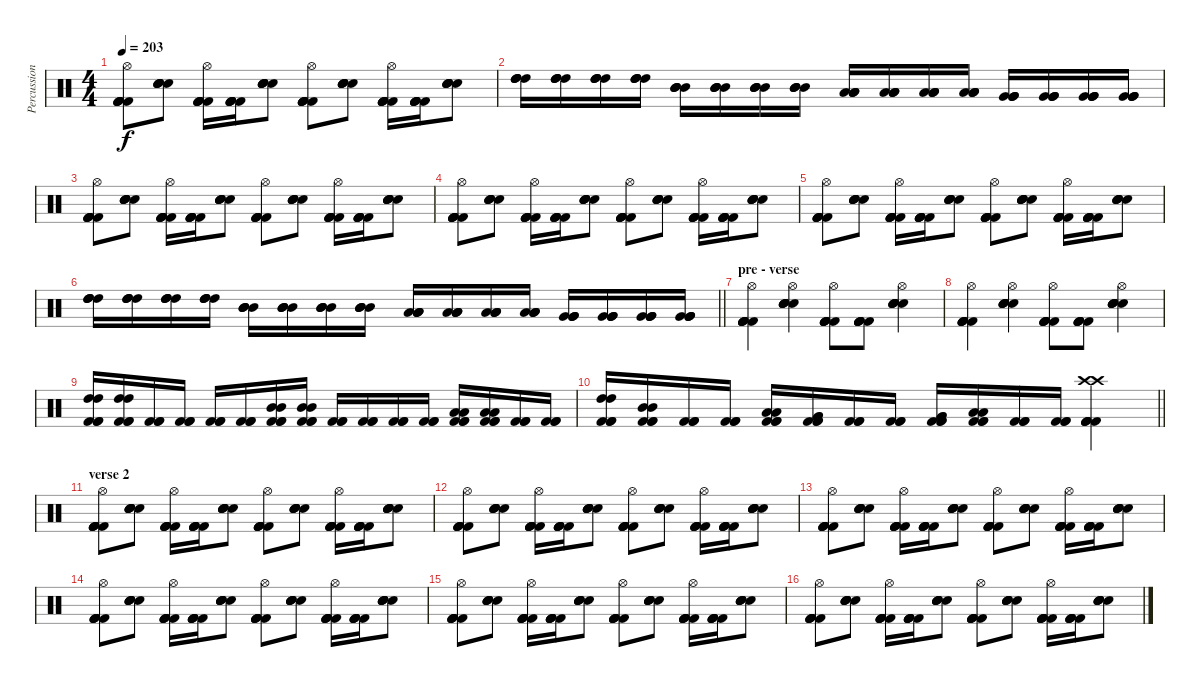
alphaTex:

\track ("Percussion" "Percussion") {instrument percussion}
\staff {score}
\articulation defaults
\ts (4 4)
\tempo 203
\clef neutral
\ks c
("Kick (hit) 2" "Kick (hit) 2" "Kick (hit) 2" "Kick (hit) 2" "Kick (hit) 2" "Hi-Hat (open)").8{dy f} ("Electric Snare (hit)" "Electric Snare (hit)" "Electric Snare (hit)" "Electric Snare (hit)" "Electric Snare (hit)").8 ("Kick (hit) 2" "Kick (hit) 2" "Kick (hit) 2" "Kick (hit) 2" "Kick (hit) 2" "Hi-Hat (open)").16 ("Kick (hit) 2" "Kick (hit) 2" "Kick (hit) 2" "Kick (hit) 2" "Kick (hit) 2").16 ("Electric Snare (hit)" "Electric Snare (hit)" "Electric Snare (hit)" "Electric Snare (hit)" "Electric Snare (hit)").8 ("Kick (hit) 2" "Kick (hit) 2" "Kick (hit) 2" "Kick (hit) 2" "Kick (hit) 2" "Hi-Hat (open)").8 ("Electric Snare (hit)" "Electric Snare (hit)" "Electric Snare (hit)" "Electric Snare (hit)" "Electric Snare (hit)").8 ("Kick (hit) 2" "Kick (hit) 2" "Kick (hit) 2" "Kick (hit) 2" "Kick (hit) 2" "Hi-Hat (open)").16 ("Kick (hit) 2" "Kick (hit) 2" "Kick (hit) 2" "Kick (hit) 2" "Kick (hit) 2").16 ("Electric Snare (hit)" "Electric Snare (hit)" "Electric Snare (hit)" "Electric Snare (hit)" "Electric Snare (hit)").8 |
("High Tom (hit)" "High Tom (hit)" "High Tom (hit)" "High Tom (hit)").16 ("High Tom (hit)" "High Tom (hit)" "High Tom (hit)" "High Tom (hit)").16 ("High Tom (hit)" "High Tom (hit)" "High Tom (hit)" "High Tom (hit)").16 ("High Tom (hit)" "High Tom (hit)" "High Tom (hit)" "High Tom (hit)").16 ("Mid Tom (hit)" "Mid Tom (hit)" "Mid Tom (hit)" "Mid Tom (hit)").16 ("Mid Tom (hit)" "Mid Tom (hit)" "Mid Tom (hit)" "Mid Tom (hit)").16 ("Mid Tom (hit)" "Mid Tom (hit)" "Mid Tom (hit)" "Mid Tom (hit)").16 ("Mid Tom (hit)" "Mid Tom (hit)" "Mid Tom (hit)" "Mid Tom (hit)").16 ("Low Tom (hit)" "Low Tom (hit)" "Low Tom (hit)" "Low Tom (hit)").16 ("Low Tom (hit)" "Low Tom (hit)" "Low Tom (hit)" "Low Tom (hit)").16 ("Low Tom (hit)" "Low Tom (hit)" "Low Tom (hit)" "Low Tom (hit)").16 ("Low Tom (hit)" "Low Tom (hit)" "Low Tom (hit)" "Low Tom (hit)").16 ("Very Low Tom (hit)" "Very Low Tom (hit)" "Very Low Tom (hit)" "Very Low Tom (hit)").16 ("Very Low Tom (hit)" "Very Low Tom (hit)" "Very Low Tom (hit)" "Very Low Tom (hit)").16 ("Very Low Tom (hit)" "Very Low Tom (hit)" "Very Low Tom (hit)" "Very Low Tom (hit)").16 ("Very Low Tom (hit)" "Very Low Tom (hit)" "Very Low Tom (hit)" "Very Low Tom (hit)").16 |
("Kick (hit) 2" "Kick (hit) 2" "Kick (hit) 2" "Kick (hit) 2" "Kick (hit) 2" "Hi-Hat (open)").8 ("Electric Snare (hit)" "Electric Snare (hit)" "Electric Snare (hit)" "Electric Snare (hit)" "Electric Snare (hit)").8 ("Kick (hit) 2" "Kick (hit) 2" "Kick (hit) 2" "Kick (hit) 2" "Kick (hit) 2" "Hi-Hat (open)").16 ("Kick (hit) 2" "Kick (hit) 2" "Kick (hit) 2" "Kick (hit) 2" "Kick (hit) 2").16 ("Electric Snare (hit)" "Electric Snare (hit)" "Electric Snare (hit)" "Electric Snare (hit)" "Electric Snare (hit)").8 ("Kick (hit) 2" "Kick (hit) 2" "Kick (hit) 2" "Kick (hit) 2" "Kick (hit) 2" "Hi-Hat (open)").8 ("Electric Snare (hit)" "Electric Snare (hit)" "Electric Snare (hit)" "Electric Snare (hit)" "Electric Snare (hit)").8 ("Kick (hit) 2" "Kick (hit) 2" "Kick (hit) 2" "Kick (hit) 2" "Kick (hit) 2" "Hi-Hat (open)").16 ("Kick (hit) 2" "Kick (hit) 2" "Kick (hit) 2" "Kick (hit) 2" "Kick (hit) 2").16 ("Electric Snare (hit)" "Electric Snare (hit)" "Electric Snare (hit)" "Electric Snare (hit)" "Electric Snare (hit)").8 |
("Kick (hit) 2" "Kick (hit) 2" "Kick (hit) 2" "Kick (hit) 2" "Kick (hit) 2" "Hi-Hat (open)").8 ("Electric Snare (hit)" "Electric Snare (hit)" "Electric Snare (hit)" "Electric Snare (hit)" "Electric Snare (hit)").8 ("Kick (hit) 2" "Kick (hit) 2" "Kick (hit) 2" "Kick (hit) 2" "Kick (hit) 2" "Hi-Hat (open)").16 ("Kick (hit) 2" "Kick (hit) 2" "Kick (hit) 2" "Kick (hit) 2" "Kick (hit) 2").16 ("Electric Snare (hit)" "Electric Snare (hit)" "Electric Snare (hit)" "Electric Snare (hit)" "Electric Snare (hit)").8 ("Kick (hit) 2" "Kick (hit) 2" "Kick (hit) 2" "Kick (hit) 2" "Kick (hit) 2" "Hi-Hat (open)").8 ("Electric Snare (hit)" "Electric Snare (hit)" "Electric Snare (hit)" "Electric Snare (hit)" "Electric Snare (hit)").8 ("Kick (hit) 2" "Kick (hit) 2" "Kick (hit) 2" "Kick (hit) 2" "Kick (hit) 2" "Hi-Hat (open)").16 ("Kick (hit) 2" "Kick (hit) 2" "Kick (hit) 2" "Kick (hit) 2" "Kick (hit) 2").16 ("Electric Snare (hit)" "Electric Snare (hit)" "Electric Snare (hit)" "Electric Snare (hit)" "Electric Snare (hit)").8 |
("Kick (hit) 2" "Kick (hit) 2" "Kick (hit) 2" "Kick (hit) 2" "Kick (hit) 2" "Hi-Hat (open)").8 ("Electric Snare (hit)" "Electric Snare (hit)" "Electric Snare (hit)" "Electric Snare (hit)" "Electric Snare (hit)").8 ("Kick (hit) 2" "Kick (hit) 2" "Kick (hit) 2" "Kick (hit) 2" "Kick (hit) 2" "Hi-Hat (open)").16 ("Kick (hit) 2" "Kick (hit) 2" "Kick (hit) 2" "Kick (hit) 2" "Kick (hit) 2").16 ("Electric Snare (hit)" "Electric Snare (hit)" "Electric Snare (hit)" "Electric Snare (hit)" "Electric Snare (hit)").8 ("Kick (hit) 2" "Kick (hit) 2" "Kick (hit) 2" "Kick (hit) 2" "Kick (hit) 2" "Hi-Hat (open)").8 ("Electric Snare (hit)" "Electric Snare (hit)" "Electric Snare (hit)" "Electric Snare (hit)" "Electric Snare (hit)").8 ("Kick (hit) 2" "Kick (hit) 2" "Kick (hit) 2" "Kick (hit) 2" "Kick (hit) 2" "Hi-Hat (open)").16 ("Kick (hit) 2" "Kick (hit) 2" "Kick (hit) 2" "Kick (hit) 2" "Kick (hit) 2").16 ("Electric Snare (hit)" "Electric Snare (hit)" "Electric Snare (hit)" "Electric Snare (hit)" "Electric Snare (hit)").8 |
\barLineRight lightlight
("High Tom (hit)" "High Tom (hit)" "High Tom (hit)" "High Tom (hit)").16 ("High Tom (hit)" "High Tom (hit)" "High Tom (hit)" "High Tom (hit)").16 ("High Tom (hit)" "High Tom (hit)" "High Tom (hit)" "High Tom (hit)").16 ("High Tom (hit)" "High Tom (hit)" "High Tom (hit)" "High Tom (hit)").16 ("Mid Tom (hit)" "Mid Tom (hit)" "Mid Tom (hit)" "Mid Tom (hit)").16 ("Mid Tom (hit)" "Mid Tom (hit)" "Mid Tom (hit)" "Mid Tom (hit)").16 ("Mid Tom (hit)" "Mid Tom (hit)" "Mid Tom (hit)" "Mid Tom (hit)").16 ("Mid Tom (hit)" "Mid Tom (hit)" "Mid Tom (hit)" "Mid Tom (hit)").16 ("Low Tom (hit)" "Low Tom (hit)" "Low Tom (hit)" "Low Tom (hit)").16 ("Low Tom (hit)" "Low Tom (hit)" "Low Tom (hit)" "Low Tom (hit)").16 ("Low Tom (hit)" "Low Tom (hit)" "Low Tom (hit)" "Low Tom (hit)").16 ("Low Tom (hit)" "Low Tom (hit)" "Low Tom (hit)" "Low Tom (hit)").16 ("Very Low Tom (hit)" "Very Low Tom (hit)" "Very Low Tom (hit)" "Very Low Tom (hit)").16 ("Very Low Tom (hit)" "Very Low Tom (hit)" "Very Low Tom (hit)" "Very Low Tom (hit)").16 ("Very Low Tom (hit)" "Very Low Tom (hit)" "Very Low Tom (hit)" "Very Low Tom (hit)").16 ("Very Low Tom (hit)" "Very Low Tom (hit)" "Very Low Tom (hit)" "Very Low Tom (hit)").16 |
\section ("" "pre - verse")
("Kick (hit) 2" "Kick (hit) 2" "Kick (hit) 2" "Kick (hit) 2" "Kick (hit) 2" "Hi-Hat (open)").4 ("Electric Snare (hit)" "Electric Snare (hit)" "Electric Snare (hit)" "Electric Snare (hit)" "Electric Snare (hit)" "Hi-Hat (open)").4 ("Kick (hit) 2" "Kick (hit) 2" "Kick (hit) 2" "Kick (hit) 2" "Kick (hit) 2" "Hi-Hat (open)").8 ("Kick (hit) 2" "Kick (hit) 2" "Kick (hit) 2" "Kick (hit) 2" "Kick (hit) 2").8 ("Electric Snare (hit)" "Electric Snare (hit)" "Electric Snare (hit)" "Electric Snare (hit)" "Electric Snare (hit)" "Hi-Hat (open)").4 |
("Kick (hit) 2" "Kick (hit) 2" "Kick (hit) 2" "Kick (hit) 2" "Kick (hit) 2" "Hi-Hat (open)").4 ("Electric Snare (hit)" "Electric Snare (hit)" "Electric Snare (hit)" "Electric Snare (hit)" "Electric Snare (hit)" "Hi-Hat (open)").4 ("Kick (hit) 2" "Kick (hit) 2" "Kick (hit) 2" "Kick (hit) 2" "Kick (hit) 2" "Hi-Hat (open)").8 ("Kick (hit) 2" "Kick (hit) 2" "Kick (hit) 2" "Kick (hit) 2" "Kick (hit) 2").8 ("Electric Snare (hit)" "Electric Snare (hit)" "Electric Snare (hit)" "Electric Snare (hit)" "Electric Snare (hit)" "Hi-Hat (open)").4 |
("Kick (hit) 2" "Kick (hit) 2" "Kick (hit) 2" "High Tom (hit)" "High Tom (hit)").16 ("Kick (hit) 2" "Kick (hit) 2" "Kick (hit) 2" "High Tom (hit)" "High Tom (hit)").16 ("Kick (hit) 2" "Kick (hit) 2" "Kick (hit) 2").16 ("Kick (hit) 2" "Kick (hit) 2" "Kick (hit) 2").16 ("Kick (hit) 2" "Kick (hit) 2" "Kick (hit) 2").16 ("Kick (hit) 2" "Kick (hit) 2" "Kick (hit) 2").16 ("Kick (hit) 2" "Kick (hit) 2" "Kick (hit) 2" "Mid Tom (hit)" "Mid Tom (hit)").16 ("Kick (hit) 2" "Kick (hit) 2" "Kick (hit) 2" "Mid Tom (hit)" "Mid Tom (hit)").16 ("Kick (hit) 2" "Kick (hit) 2" "Kick (hit) 2").16 ("Kick (hit) 2" "Kick (hit) 2" "Kick (hit) 2").16 ("Kick (hit) 2" "Kick (hit) 2" "Kick (hit) 2").16 ("Kick (hit) 2" "Kick (hit) 2" "Kick (hit) 2").16 ("Kick (hit) 2" "Kick (hit) 2" "Kick (hit) 2" "Low Tom (hit)" "Low Tom (hit)").16 ("Kick (hit) 2" "Kick (hit) 2" "Kick (hit) 2" "Low Tom (hit)" "Low Tom (hit)").16 ("Kick (hit) 2" "Kick (hit) 2" "Kick (hit) 2").16 ("Kick (hit) 2" "Kick (hit) 2" "Kick (hit) 2").16 |
\barLineRight lightlight
("Kick (hit) 2" "Kick (hit) 2" "Kick (hit) 2" "High Tom (hit)" "High Tom (hit)").16 ("Kick (hit) 2" "Kick (hit) 2" "Kick (hit) 2" "Mid Tom (hit)" "Mid Tom (hit)").16 ("Kick (hit) 2" "Kick (hit) 2" "Kick (hit) 2").16 ("Kick (hit) 2" "Kick (hit) 2" "Kick (hit) 2").16 ("Kick (hit) 2" "Kick (hit) 2" "Kick (hit) 2" "Low Tom (hit)" "Low Tom (hit)").16 ("Kick (hit) 2" "Kick (hit) 2" "Kick (hit) 2" "Very Low Tom (hit)" "Very Low Tom (hit)").16 ("Kick (hit) 2" "Kick (hit) 2" "Kick (hit) 2").16 ("Kick (hit) 2" "Kick (hit) 2" "Kick (hit) 2").16 ("Kick (hit) 2" "Kick (hit) 2" "Kick (hit) 2" "Very Low Tom (hit)" "Very Low Tom (hit)").16 ("Kick (hit) 2" "Kick (hit) 2" "Kick (hit) 2" "Low Floor Tom (hit)" "Low Floor Tom (hit)").16 ("Kick (hit) 2" "Kick (hit) 2" "Kick (hit) 2").16 ("Kick (hit) 2" "Kick (hit) 2" "Kick (hit) 2").16 ("Kick (hit) 2" "Kick (hit) 2" "Kick (hit) 2" "Kick (hit) 2" "Crash high (hit)" "Crash high (hit)").4 |
\section ("" "verse 2")
("Kick (hit) 2" "Kick (hit) 2" "Kick (hit) 2" "Kick (hit) 2" "Kick (hit) 2" "Hi-Hat (open)").8 ("Electric Snare (hit)" "Electric Snare (hit)" "Electric Snare (hit)" "Electric Snare (hit)" "Electric Snare (hit)").8 ("Kick (hit) 2" "Kick (hit) 2" "Kick (hit) 2" "Kick (hit) 2" "Kick (hit) 2" "Hi-Hat (open)").16 ("Kick (hit) 2" "Kick (hit) 2" "Kick (hit) 2" "Kick (hit) 2" "Kick (hit) 2").16 ("Electric Snare (hit)" "Electric Snare (hit)" "Electric Snare (hit)" "Electric Snare (hit)" "Electric Snare (hit)").8 ("Kick (hit) 2" "Kick (hit) 2" "Kick (hit) 2" "Kick (hit) 2" "Kick (hit) 2" "Hi-Hat (open)").8 ("Electric Snare (hit)" "Electric Snare (hit)" "Electric Snare (hit)" "Electric Snare (hit)" "Electric Snare (hit)").8 ("Kick (hit) 2" "Kick (hit) 2" "Kick (hit) 2" "Kick (hit) 2" "Kick (hit) 2" "Hi-Hat (open)").16 ("Kick (hit) 2" "Kick (hit) 2" "Kick (hit) 2" "Kick (hit) 2" "Kick (hit) 2").16 ("Electric Snare (hit)" "Electric Snare (hit)" "Electric Snare (hit)" "Electric Snare (hit)" "Electric Snare (hit)").8 |
("Kick (hit) 2" "Kick (hit) 2" "Kick (hit) 2" "Kick (hit) 2" "Kick (hit) 2" "Hi-Hat (open)").8 ("Electric Snare (hit)" "Electric Snare (hit)" "Electric Snare (hit)" "Electric Snare (hit)" "Electric Snare (hit)").8 ("Kick (hit) 2" "Kick (hit) 2" "Kick (hit) 2" "Kick (hit) 2" "Kick (hit) 2" "Hi-Hat (open)").16 ("Kick (hit) 2" "Kick (hit) 2" "Kick (hit) 2" "Kick (hit) 2" "Kick (hit) 2").16 ("Electric Snare (hit)" "Electric Snare (hit)" "Electric Snare (hit)" "Electric Snare (hit)" "Electric Snare (hit)").8 ("Kick (hit) 2" "Kick (hit) 2" "Kick (hit) 2" "Kick (hit) 2" "Kick (hit) 2" "Hi-Hat (open)").8 ("Electric Snare (hit)" "Electric Snare (hit)" "Electric Snare (hit)" "Electric Snare (hit)" "Electric Snare (hit)").8 ("Kick (hit) 2" "Kick (hit) 2" "Kick (hit) 2" "Kick (hit) 2" "Kick (hit) 2" "Hi-Hat (open)").16 ("Kick (hit) 2" "Kick (hit) 2" "Kick (hit) 2" "Kick (hit) 2" "Kick (hit) 2").16 ("Electric Snare (hit)" "Electric Snare (hit)" "Electric Snare (hit)" "Electric Snare (hit)" "Electric Snare (hit)").8 |
("Kick (hit) 2" "Kick (hit) 2" "Kick (hit) 2" "Kick (hit) 2" "Kick (hit) 2" "Hi-Hat (open)").8 ("Electric Snare (hit)" "Electric Snare (hit)" "Electric Snare (hit)" "Electric Snare (hit)" "Electric Snare (hit)").8 ("Kick (hit) 2" "Kick (hit) 2" "Kick (hit) 2" "Kick (hit) 2" "Kick (hit) 2" "Hi-Hat (open)").16 ("Kick (hit) 2" "Kick (hit) 2" "Kick (hit) 2" "Kick (hit) 2" "Kick (hit) 2").16 ("Electric Snare (hit)" "Electric Snare (hit)" "Electric Snare (hit)" "Electric Snare (hit)" "Electric Snare (hit)").8 ("Kick (hit) 2" "Kick (hit) 2" "Kick (hit) 2" "Kick (hit) 2" "Kick (hit) 2" "Hi-Hat (open)").8 ("Electric Snare (hit)" "Electric Snare (hit)" "Electric Snare (hit)" "Electric Snare (hit)" "Electric Snare (hit)").8 ("Kick (hit) 2" "Kick (hit) 2" "Kick (hit) 2" "Kick (hit) 2" "Kick (hit) 2" "Hi-Hat (open)").16 ("Kick (hit) 2" "Kick (hit) 2" "Kick (hit) 2" "Kick (hit) 2" "Kick (hit) 2").16 ("Electric Snare (hit)" "Electric Snare (hit)" "Electric Snare (hit)" "Electric Snare (hit)" "Electric Snare (hit)").8 |
("Kick (hit) 2" "Kick (hit) 2" "Kick (hit) 2" "Kick (hit) 2" "Kick (hit) 2" "Hi-Hat (open)").8 ("Electric Snare (hit)" "Electric Snare (hit)" "Electric Snare (hit)" "Electric Snare (hit)" "Electric Snare (hit)").8 ("Kick (hit) 2" "Kick (hit) 2" "Kick (hit) 2" "Kick (hit) 2" "Kick (hit) 2" "Hi-Hat (open)").16 ("Kick (hit) 2" "Kick (hit) 2" "Kick (hit) 2" "Kick (hit) 2" "Kick (hit) 2").16 ("Electric Snare (hit)" "Electric Snare (hit)" "Electric Snare (hit)" "Electric Snare (hit)" "Electric Snare (hit)").8 ("Kick (hit) 2" "Kick (hit) 2" "Kick (hit) 2" "Kick (hit) 2" "Kick (hit) 2" "Hi-Hat (open)").8 ("Electric Snare (hit)" "Electric Snare (hit)" "Electric Snare (hit)" "Electric Snare (hit)" "Electric Snare (hit)").8 ("Kick (hit) 2" "Kick (hit) 2" "Kick (hit) 2" "Kick (hit) 2" "Kick (hit) 2" "Hi-Hat (open)").16 ("Kick (hit) 2" "Kick (hit) 2" "Kick (hit) 2" "Kick (hit) 2" "Kick (hit) 2").16 ("Electric Snare (hit)" "Electric Snare (hit)" "Electric Snare (hit)" "Electric Snare (hit)" "Electric Snare (hit)").8 |
("Kick (hit) 2" "Kick (hit) 2" "Kick (hit) 2" "Kick (hit) 2" "Kick (hit) 2" "Hi-Hat (open)").8 ("Electric Snare (hit)" "Electric Snare (hit)" "Electric Snare (hit)" "Electric Snare (hit)" "Electric Snare (hit)").8 ("Kick (hit) 2" "Kick (hit) 2" "Kick (hit) 2" "Kick (hit) 2" "Kick (hit) 2" "Hi-Hat (open)").16 ("Kick (hit) 2" "Kick (hit) 2" "Kick (hit) 2" "Kick (hit) 2" "Kick (hit) 2").16 ("Electric Snare (hit)" "Electric Snare (hit)" "Electric Snare (hit)" "Electric Snare (hit)" "Electric Snare (hit)").8 ("Kick (hit) 2" "Kick (hit) 2" "Kick (hit) 2" "Kick (hit) 2" "Kick (hit) 2" "Hi-Hat (open)").8 ("Electric Snare (hit)" "Electric Snare (hit)" "Electric Snare (hit)" "Electric Snare (hit)" "Electric Snare (hit)").8 ("Kick (hit) 2" "Kick (hit) 2" "Kick (hit) 2" "Kick (hit) 2" "Kick (hit) 2" "Hi-Hat (open)").16 ("Kick (hit) 2" "Kick (hit) 2" "Kick (hit) 2" "Kick (hit) 2" "Kick (hit) 2").16 ("Electric Snare (hit)" "Electric Snare (hit)" "Electric Snare (hit)" "Electric Snare (hit)" "Electric Snare (hit)").8 |
("Kick (hit) 2" "Kick (hit) 2" "Kick (hit) 2" "Kick (hit) 2" "Kick (hit) 2" "Hi-Hat (open)").8 ("Electric Snare (hit)" "Electric Snare (hit)" "Electric Snare (hit)" "Electric Snare (hit)" "Electric Snare (hit)").8 ("Kick (hit) 2" "Kick (hit) 2" "Kick (hit) 2" "Kick (hit) 2" "Kick (hit) 2" "Hi-Hat (open)").16 ("Kick (hit) 2" "Kick (hit) 2" "Kick (hit) 2" "Kick (hit) 2" "Kick (hit) 2").16 ("Electric Snare (hit)" "Electric Snare (hit)" "Electric Snare (hit)" "Electric Snare (hit)" "Electric Snare (hit)").8 ("Kick (hit) 2" "Kick (hit) 2" "Kick (hit) 2" "Kick (hit) 2" "Kick (hit) 2" "Hi-Hat (open)").8 ("Electric Snare (hit)" "Electric Snare (hit)" "Electric Snare (hit)" "Electric Snare (hit)" "Electric Snare (hit)").8 ("Kick (hit) 2" "Kick (hit) 2" "Kick (hit) 2" "Kick (hit) 2" "Kick (hit) 2" "Hi-Hat (open)").16 ("Kick (hit) 2" "Kick (hit) 2" "Kick (hit) 2" "Kick (hit) 2" "Kick (hit) 2").16 ("Electric Snare (hit)" "Electric Snare (hit)" "Electric Snare (hit)" "Electric Snare (hit)" "Electric Snare (hit)").8
